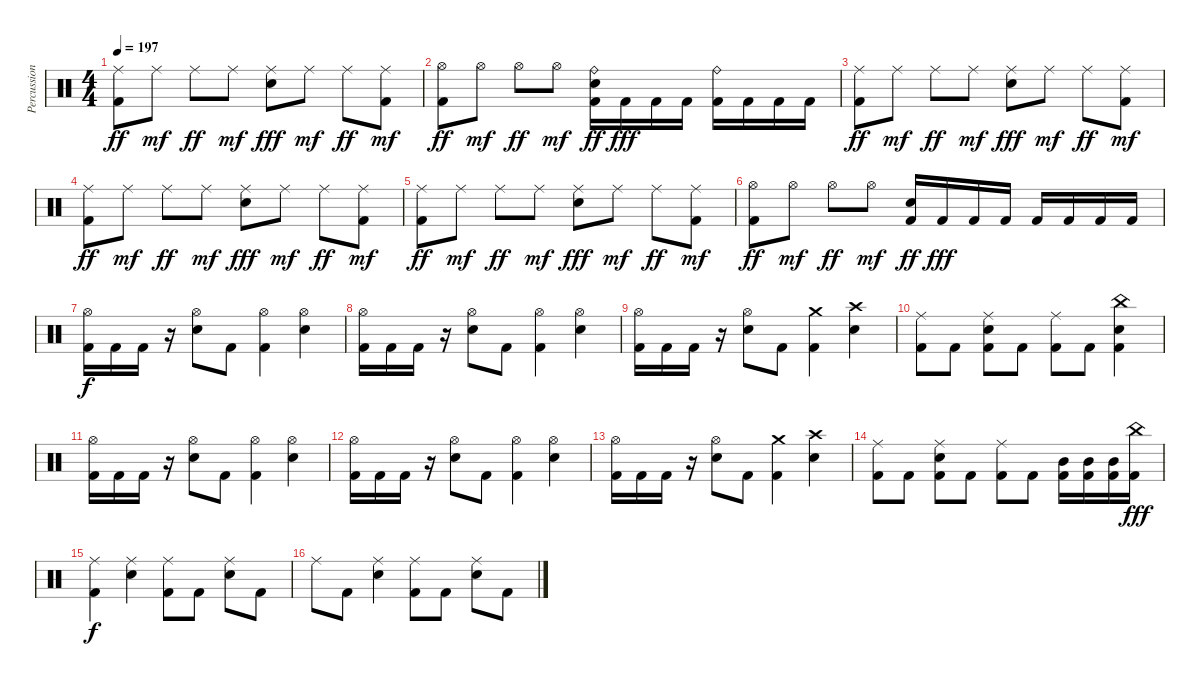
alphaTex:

\track ("Percussions" "Percussion") {instrument percussion}
\staff {score}
\articulation defaults
\ts (4 4)
\tempo 197
\clef neutral
\ks c
("Ride (middle)" "Kick (hit) 2").8{dy ff} "Ride (middle)".8{dy mf} "Ride (middle)".8{dy ff} "Ride (middle)".8{dy mf} ("Ride (middle)" "Snare (hit) 2").8{dy fff} "Ride (middle)".8{dy mf} "Ride (middle)".8{dy ff} ("Ride (middle)" "Kick (hit) 2").8{dy mf} |
("Hi-Hat (open)" "Kick (hit) 2").8{dy ff} "Hi-Hat (open)".8{dy mf} "Hi-Hat (open)".8{dy ff} "Hi-Hat (open)".8{dy mf} ("Ride (bell)" "Snare (hit) 2" "Kick (hit) 2").16{dy ff} "Kick (hit) 2".16{dy fff} "Kick (hit) 2".16 "Kick (hit) 2".16 ("Ride (bell)" "Kick (hit) 2").16 "Kick (hit) 2".16 "Kick (hit) 2".16 "Kick (hit) 2".16 |
("Ride (middle)" "Kick (hit) 2").8{dy ff} "Ride (middle)".8{dy mf} "Ride (middle)".8{dy ff} "Ride (middle)".8{dy mf} ("Ride (middle)" "Snare (hit) 2").8{dy fff} "Ride (middle)".8{dy mf} "Ride (middle)".8{dy ff} ("Ride (middle)" "Kick (hit) 2").8{dy mf} |
("Ride (middle)" "Kick (hit) 2").8{dy ff} "Ride (middle)".8{dy mf} "Ride (middle)".8{dy ff} "Ride (middle)".8{dy mf} ("Ride (middle)" "Snare (hit) 2").8{dy fff} "Ride (middle)".8{dy mf} "Ride (middle)".8{dy ff} ("Ride (middle)" "Kick (hit) 2").8{dy mf} |
("Ride (middle)" "Kick (hit) 2").8{dy ff} "Ride (middle)".8{dy mf} "Ride (middle)".8{dy ff} "Ride (middle)".8{dy mf} ("Ride (middle)" "Snare (hit) 2").8{dy fff} "Ride (middle)".8{dy mf} "Ride (middle)".8{dy ff} ("Ride (middle)" "Kick (hit) 2").8{dy mf} |
("Hi-Hat (open)" "Kick (hit) 2").8{dy ff} "Hi-Hat (open)".8{dy mf} "Hi-Hat (open)".8{dy ff} "Hi-Hat (open)".8{dy mf} ("Snare (hit) 2" "Kick (hit) 2").16{dy ff} "Kick (hit) 2".16{dy fff} "Kick (hit) 2".16 "Kick (hit) 2".16 "Kick (hit) 2".16 "Kick (hit) 2".16 "Kick (hit) 2".16 "Kick (hit) 2".16 |
("Hi-Hat (open)" "Kick (hit) 2").16{dy f} "Kick (hit) 2".16 "Kick (hit) 2".16 r.16 ("Hi-Hat (open)" "Snare (hit) 2").8 "Kick (hit) 2".8 ("Hi-Hat (open)" "Kick (hit) 2").4 ("Hi-Hat (open)" "Snare (hit) 2").4 |
("Hi-Hat (open)" "Kick (hit) 2").16 "Kick (hit) 2".16 "Kick (hit) 2".16 r.16 ("Hi-Hat (open)" "Snare (hit) 2").8 "Kick (hit) 2".8 ("Hi-Hat (open)" "Kick (hit) 2").4 ("Hi-Hat (open)" "Snare (hit) 2").4 |
("Hi-Hat (open)" "Kick (hit) 2").16 "Kick (hit) 2".16 "Kick (hit) 2".16 r.16 ("Hi-Hat (open)" "Snare (hit) 2").8 "Kick (hit) 2".8 ("Crash medium (hit)" "Kick (hit) 2").4 ("Crash high (hit)" "Snare (hit) 2").4 |
("Ride (middle)" "Kick (hit) 2").8 "Kick (hit) 2".8 ("Ride (middle)" "Snare (hit) 2" "Kick (hit) 2").8 "Kick (hit) 2".8 ("Ride (middle)" "Kick (hit) 2").8 "Kick (hit) 2".8 ("China (hit)" "Snare (hit) 2" "Kick (hit) 2").4 |
("Hi-Hat (open)" "Kick (hit) 2").16 "Kick (hit) 2".16 "Kick (hit) 2".16 r.16 ("Hi-Hat (open)" "Snare (hit) 2").8 "Kick (hit) 2".8 ("Hi-Hat (open)" "Kick (hit) 2").4 ("Hi-Hat (open)" "Snare (hit) 2").4 |
("Hi-Hat (open)" "Kick (hit) 2").16 "Kick (hit) 2".16 "Kick (hit) 2".16 r.16 ("Hi-Hat (open)" "Snare (hit) 2").8 "Kick (hit) 2".8 ("Hi-Hat (open)" "Kick (hit) 2").4 ("Hi-Hat (open)" "Snare (hit) 2").4 |
("Hi-Hat (open)" "Kick (hit) 2").16 "Kick (hit) 2".16 "Kick (hit) 2".16 r.16 ("Hi-Hat (open)" "Snare (hit) 2").8 "Kick (hit) 2".8 ("Crash medium (hit)" "Kick (hit) 2").4 ("Crash high (hit)" "Snare (hit) 2").4 |
("Ride (middle)" "Kick (hit) 2").8 "Kick (hit) 2".8 ("Ride (middle)" "Snare (hit) 2" "Kick (hit) 2").8 "Kick (hit) 2".8 ("Ride (middle)" "Kick (hit) 2").8 "Kick (hit) 2".8 ("Mid Tom (hit)" "Kick (hit) 2").16 ("Mid Tom (hit)" "Kick (hit) 2").16 ("Mid Tom (hit)" "Kick (hit) 2").16 ("China (hit)" "Kick (hit) 2").16{dy fff} |
("Ride (middle)" "Kick (hit) 2").4{dy f} ("Ride (middle)" "Snare (hit) 2").4 ("Ride (middle)" "Kick (hit) 2").8 "Kick (hit) 2".8 ("Ride (middle)" "Snare (hit) 2").8 "Kick (hit) 2".8 |
"Ride (middle)".8 "Kick (hit) 2".8 ("Ride (middle)" "Snare (hit) 2").4 ("Ride (middle)" "Kick (hit) 2").8 "Kick (hit) 2".8 ("Ride (middle)" "Snare (hit) 2").8 "Kick (hit) 2".8
